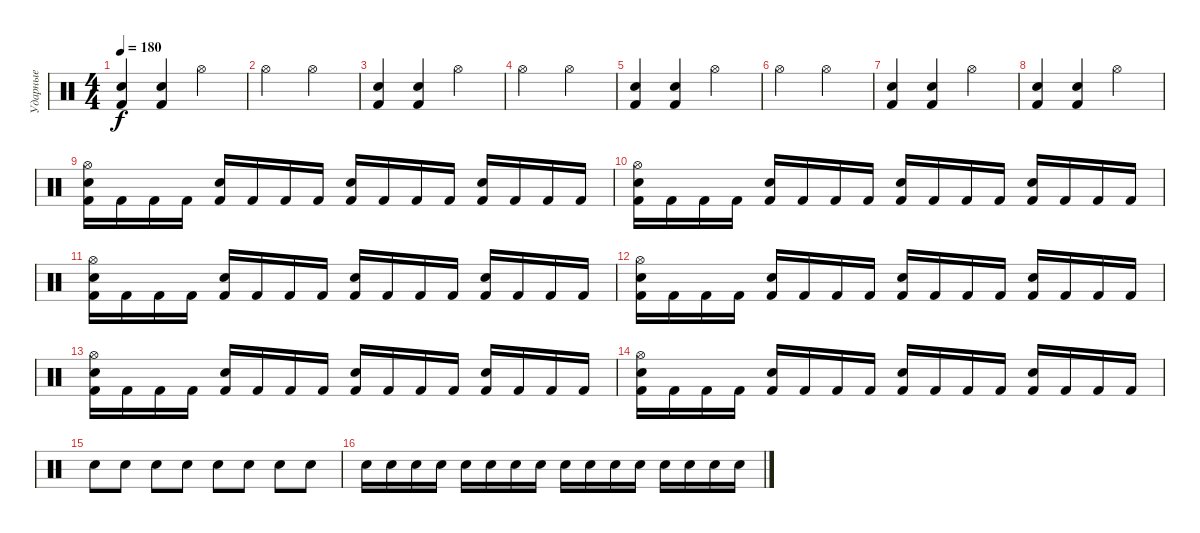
\track ("Ударные" "Ударные") {instrument percussion}
\staff
\articulation defaults
\ts (4 4)
\tempo 180
\clef neutral
\ks c
("Kick (hit) 2" "Electric Snare (hit)").4{dy f} ("Kick (hit) 2" "Electric Snare (hit)").4 "Hi-Hat (open)".2 |
"Hi-Hat (open)".2 "Hi-Hat (open)".2 |
("Kick (hit) 2" "Electric Snare (hit)").4 ("Kick (hit) 2" "Electric Snare (hit)").4 "Hi-Hat (open)".2 |
"Hi-Hat (open)".2 "Hi-Hat (open)".2 |
("Kick (hit) 2" "Electric Snare (hit)").4 ("Kick (hit) 2" "Electric Snare (hit)").4 "Hi-Hat (open)".2 |
"Hi-Hat (open)".2 "Hi-Hat (open)".2 |
("Kick (hit) 2" "Electric Snare (hit)").4 ("Kick (hit) 2" "Electric Snare (hit)").4 "Hi-Hat (open)".2 |
("Kick (hit) 2" "Electric Snare (hit)").4 ("Kick (hit) 2" "Electric Snare (hit)").4 "Hi-Hat (open)".2 |
("Kick (hit) 2" "Hi-Hat (open)" "Electric Snare (hit)").16 "Kick (hit) 2".16 "Kick (hit) 2".16 "Kick (hit) 2".16 ("Kick (hit) 2" "Electric Snare (hit)").16 "Kick (hit) 2".16 "Kick (hit) 2".16 "Kick (hit) 2".16 ("Kick (hit) 2" "Electric Snare (hit)").16 "Kick (hit) 2".16 "Kick (hit) 2".16 "Kick (hit) 2".16 ("Kick (hit) 2" "Electric Snare (hit)").16 "Kick (hit) 2".16 "Kick (hit) 2".16 "Kick (hit) 2".16 |
("Kick (hit) 2" "Hi-Hat (open)" "Electric Snare (hit)").16 "Kick (hit) 2".16 "Kick (hit) 2".16 "Kick (hit) 2".16 ("Kick (hit) 2" "Electric Snare (hit)").16 "Kick (hit) 2".16 "Kick (hit) 2".16 "Kick (hit) 2".16 ("Kick (hit) 2" "Electric Snare (hit)").16 "Kick (hit) 2".16 "Kick (hit) 2".16 "Kick (hit) 2".16 ("Kick (hit) 2" "Electric Snare (hit)").16 "Kick (hit) 2".16 "Kick (hit) 2".16 "Kick (hit) 2".16 |
("Kick (hit) 2" "Hi-Hat (open)" "Electric Snare (hit)").16 "Kick (hit) 2".16 "Kick (hit) 2".16 "Kick (hit) 2".16 ("Kick (hit) 2" "Electric Snare (hit)").16 "Kick (hit) 2".16 "Kick (hit) 2".16 "Kick (hit) 2".16 ("Kick (hit) 2" "Electric Snare (hit)").16 "Kick (hit) 2".16 "Kick (hit) 2".16 "Kick (hit) 2".16 ("Kick (hit) 2" "Electric Snare (hit)").16 "Kick (hit) 2".16 "Kick (hit) 2".16 "Kick (hit) 2".16 |
("Kick (hit) 2" "Hi-Hat (open)" "Electric Snare (hit)").16 "Kick (hit) 2".16 "Kick (hit) 2".16 "Kick (hit) 2".16 ("Kick (hit) 2" "Electric Snare (hit)").16 "Kick (hit) 2".16 "Kick (hit) 2".16 "Kick (hit) 2".16 ("Kick (hit) 2" "Electric Snare (hit)").16 "Kick (hit) 2".16 "Kick (hit) 2".16 "Kick (hit) 2".16 ("Kick (hit) 2" "Electric Snare (hit)").16 "Kick (hit) 2".16 "Kick (hit) 2".16 "Kick (hit) 2".16 |
("Kick (hit) 2" "Hi-Hat (open)" "Electric Snare (hit)").16 "Kick (hit) 2".16 "Kick (hit) 2".16 "Kick (hit) 2".16 ("Kick (hit) 2" "Electric Snare (hit)").16 "Kick (hit) 2".16 "Kick (hit) 2".16 "Kick (hit) 2".16 ("Kick (hit) 2" "Electric Snare (hit)").16 "Kick (hit) 2".16 "Kick (hit) 2".16 "Kick (hit) 2".16 ("Kick (hit) 2" "Electric Snare (hit)").16 "Kick (hit) 2".16 "Kick (hit) 2".16 "Kick (hit) 2".16 |
("Kick (hit) 2" "Hi-Hat (open)" "Electric Snare (hit)").16 "Kick (hit) 2".16 "Kick (hit) 2".16 "Kick (hit) 2".16 ("Kick (hit) 2" "Electric Snare (hit)").16 "Kick (hit) 2".16 "Kick (hit) 2".16 "Kick (hit) 2".16 ("Kick (hit) 2" "Electric Snare (hit)").16 "Kick (hit) 2".16 "Kick (hit) 2".16 "Kick (hit) 2".16 ("Kick (hit) 2" "Electric Snare (hit)").16 "Kick (hit) 2".16 "Kick (hit) 2".16 "Kick (hit) 2".16 |
"Electric Snare (hit)".8 "Electric Snare (hit)".8 "Electric Snare (hit)".8 "Electric Snare (hit)".8 "Electric Snare (hit)".8 "Electric Snare (hit)".8 "Electric Snare (hit)".8 "Electric Snare (hit)".8 |
"Electric Snare (hit)".16 "Electric Snare (hit)".16 "Electric Snare (hit)".16 "Electric Snare (hit)".16 "Electric Snare (hit)".16 "Electric Snare (hit)".16 "Electric Snare (hit)".16 "Electric Snare (hit)".16 "Electric Snare (hit)".16 "Electric Snare (hit)".16 "Electric Snare (hit)".16 "Electric Snare (hit)".16 "Electric Snare (hit)".16 "Electric Snare (hit)".16 "Electric Snare (hit)".16 "Electric Snare (hit)".16
